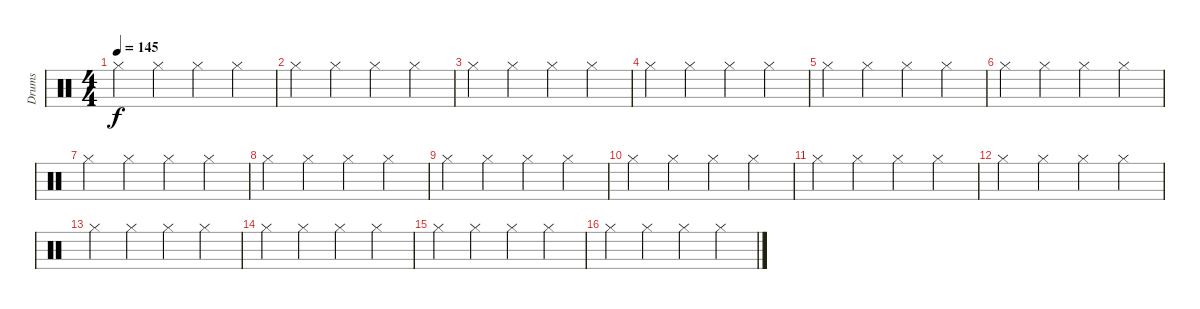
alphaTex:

\track ("Drums" "Drums") {instrument percussion}
\staff {score}
\articulation defaults
\ts (4 4)
\tempo 145
\clef neutral
\ks c "Hi-Hat (closed)".4{dy f} "Hi-Hat (closed)".4 "Hi-Hat (closed)".4 "Hi-Hat (closed)".4
|
"Hi-Hat (closed)".4 "Hi-Hat (closed)".4 "Hi-Hat (closed)".4 "Hi-Hat (closed)".4 |
"Hi-Hat (closed)".4 "Hi-Hat (closed)".4 "Hi-Hat (closed)".4 "Hi-Hat (closed)".4 |
"Hi-Hat (closed)".4 "Hi-Hat (closed)".4 "Hi-Hat (closed)".4 "Hi-Hat (closed)".4 |
"Hi-Hat (closed)".4 "Hi-Hat (closed)".4 "Hi-Hat (closed)".4 "Hi-Hat (closed)".4 |
"Hi-Hat (closed)".4 "Hi-Hat (closed)".4 "Hi-Hat (closed)".4 "Hi-Hat (closed)".4 |
"Hi-Hat (closed)".4 "Hi-Hat (closed)".4 "Hi-Hat (closed)".4 "Hi-Hat (closed)".4 |
"Hi-Hat (closed)".4 "Hi-Hat (closed)".4 "Hi-Hat (closed)".4 "Hi-Hat (closed)".4 |
"Hi-Hat (closed)".4 "Hi-Hat (closed)".4 "Hi-Hat (closed)".4 "Hi-Hat (closed)".4 |
"Hi-Hat (closed)".4 "Hi-Hat (closed)".4 "Hi-Hat (closed)".4 "Hi-Hat (closed)".4 |
"Hi-Hat (closed)".4 "Hi-Hat (closed)".4 "Hi-Hat (closed)".4 "Hi-Hat (closed)".4 |
"Hi-Hat (closed)".4 "Hi-Hat (closed)".4 "Hi-Hat (closed)".4 "Hi-Hat (closed)".4 |
"Hi-Hat (closed)".4 "Hi-Hat (closed)".4 "Hi-Hat (closed)".4 "Hi-Hat (closed)".4 |
"Hi-Hat (closed)".4 "Hi-Hat (closed)".4 "Hi-Hat (closed)".4 "Hi-Hat (closed)".4 |
"Hi-Hat (closed)".4 "Hi-Hat (closed)".4 "Hi-Hat (closed)".4 "Hi-Hat (closed)".4 |
"Hi-Hat (closed)".4 "Hi-Hat (closed)".4 "Hi-Hat (closed)".4 "Hi-Hat (closed)".4
